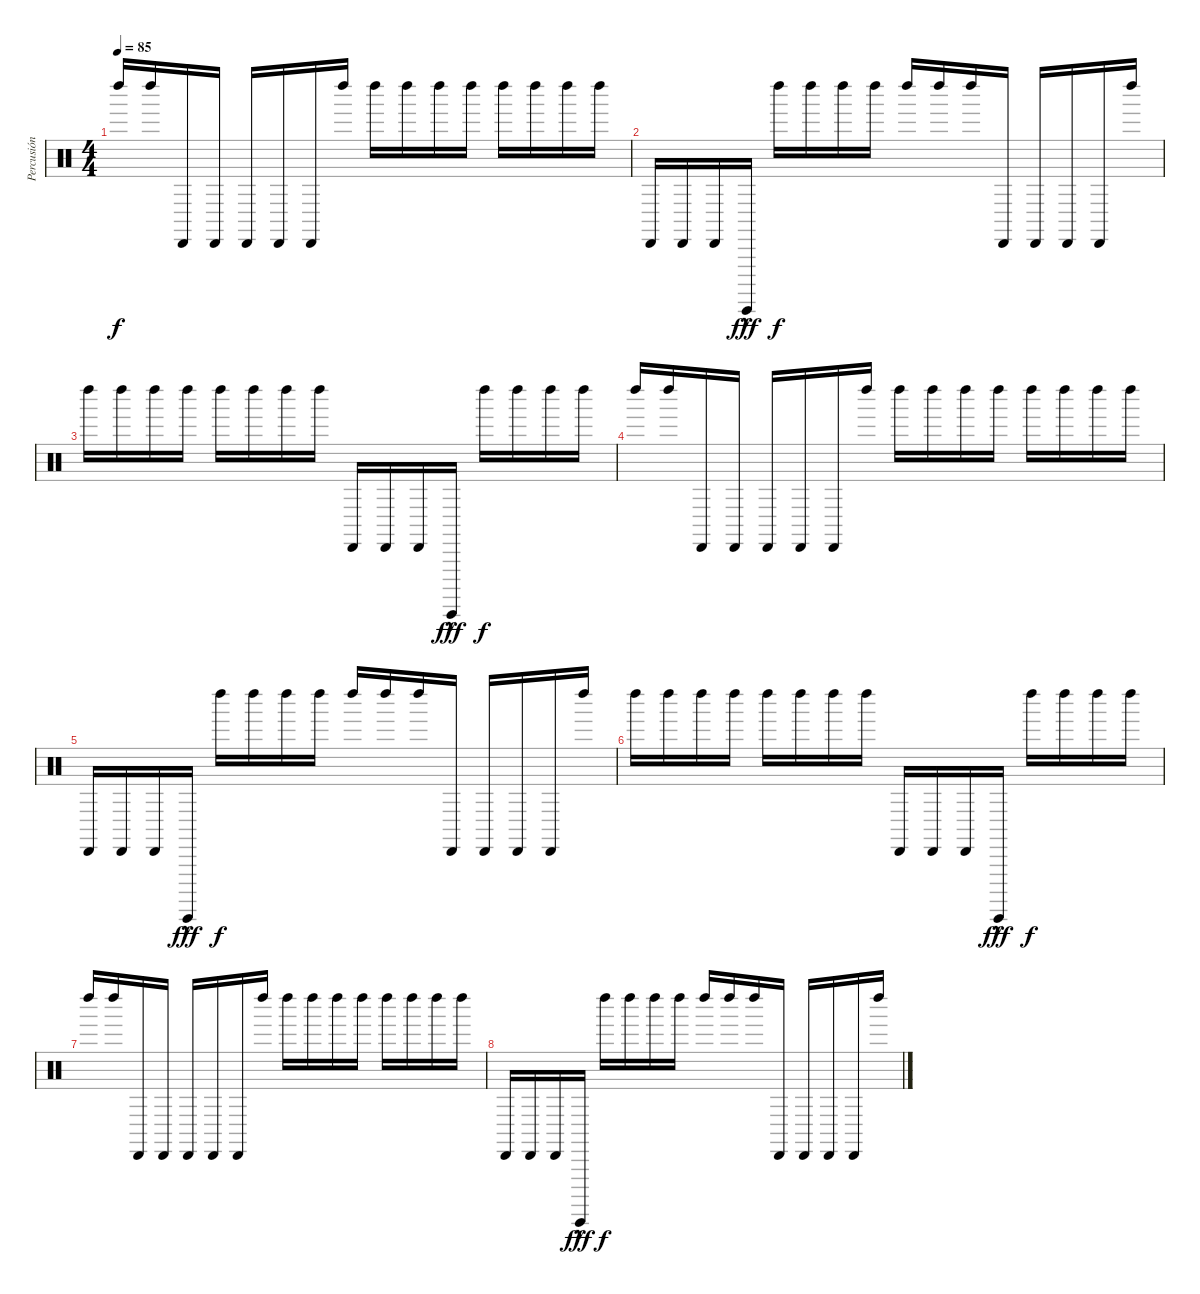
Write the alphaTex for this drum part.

\track ("Percusión" "Percusión") {instrument percussion}
\staff {score}
\articulation defaults
\ts (4 4)
\tempo 85
\clef neutral
\ks c "Left Maraca (hit)".16{dy f} "Left Maraca (hit)".16 "Cabasa (hit)".16 "Cabasa (hit)".16 "Cabasa (hit)".16 "Cabasa (hit)".16 "Cabasa (hit)".16 "Left Maraca (hit)".16 "Left Maraca (hit)".16 "Left Maraca (hit)".16 "Left Maraca (hit)".16 "Left Maraca (hit)".16 "Left Maraca (hit)".16 "Left Maraca (hit)".16 "Left Maraca (hit)".16 "Left Maraca (hit)".16
|
"Cabasa (hit)".16 "Cabasa (hit)".16 "Cabasa (hit)".16 "Guiro (hit)"{hac}.16{dy fff} "Left Maraca (hit)".16{dy f} "Left Maraca (hit)".16 "Left Maraca (hit)".16 "Left Maraca (hit)".16 "Left Maraca (hit)".16 "Left Maraca (hit)".16 "Left Maraca (hit)".16 "Cabasa (hit)".16 "Cabasa (hit)".16 "Cabasa (hit)".16 "Cabasa (hit)".16 "Left Maraca (hit)".16 |
"Left Maraca (hit)".16 "Left Maraca (hit)".16 "Left Maraca (hit)".16 "Left Maraca (hit)".16 "Left Maraca (hit)".16 "Left Maraca (hit)".16 "Left Maraca (hit)".16 "Left Maraca (hit)".16 "Cabasa (hit)".16 "Cabasa (hit)".16 "Cabasa (hit)".16 "Guiro (hit)"{hac}.16{dy fff} "Left Maraca (hit)".16{dy f} "Left Maraca (hit)".16 "Left Maraca (hit)".16 "Left Maraca (hit)".16 |
"Left Maraca (hit)".16 "Left Maraca (hit)".16 "Cabasa (hit)".16 "Cabasa (hit)".16 "Cabasa (hit)".16 "Cabasa (hit)".16 "Cabasa (hit)".16 "Left Maraca (hit)".16 "Left Maraca (hit)".16 "Left Maraca (hit)".16 "Left Maraca (hit)".16 "Left Maraca (hit)".16 "Left Maraca (hit)".16 "Left Maraca (hit)".16 "Left Maraca (hit)".16 "Left Maraca (hit)".16 |
"Cabasa (hit)".16 "Cabasa (hit)".16 "Cabasa (hit)".16 "Guiro (hit)"{hac}.16{dy fff} "Left Maraca (hit)".16{dy f} "Left Maraca (hit)".16 "Left Maraca (hit)".16 "Left Maraca (hit)".16 "Left Maraca (hit)".16 "Left Maraca (hit)".16 "Left Maraca (hit)".16 "Cabasa (hit)".16 "Cabasa (hit)".16 "Cabasa (hit)".16 "Cabasa (hit)".16 "Left Maraca (hit)".16 |
"Left Maraca (hit)".16 "Left Maraca (hit)".16 "Left Maraca (hit)".16 "Left Maraca (hit)".16 "Left Maraca (hit)".16 "Left Maraca (hit)".16 "Left Maraca (hit)".16 "Left Maraca (hit)".16 "Cabasa (hit)".16 "Cabasa (hit)".16 "Cabasa (hit)".16 "Guiro (hit)"{hac}.16{dy fff} "Left Maraca (hit)".16{dy f} "Left Maraca (hit)".16 "Left Maraca (hit)".16 "Left Maraca (hit)".16 |
"Left Maraca (hit)".16 "Left Maraca (hit)".16 "Cabasa (hit)".16 "Cabasa (hit)".16 "Cabasa (hit)".16 "Cabasa (hit)".16 "Cabasa (hit)".16 "Left Maraca (hit)".16 "Left Maraca (hit)".16 "Left Maraca (hit)".16 "Left Maraca (hit)".16 "Left Maraca (hit)".16 "Left Maraca (hit)".16 "Left Maraca (hit)".16 "Left Maraca (hit)".16 "Left Maraca (hit)".16 |
"Cabasa (hit)".16 "Cabasa (hit)".16 "Cabasa (hit)".16 "Guiro (hit)"{hac}.16{dy fff} "Left Maraca (hit)".16{dy f} "Left Maraca (hit)".16 "Left Maraca (hit)".16 "Left Maraca (hit)".16 "Left Maraca (hit)".16 "Left Maraca (hit)".16 "Left Maraca (hit)".16 "Cabasa (hit)".16 "Cabasa (hit)".16 "Cabasa (hit)".16 "Cabasa (hit)".16 "Left Maraca (hit)".16
